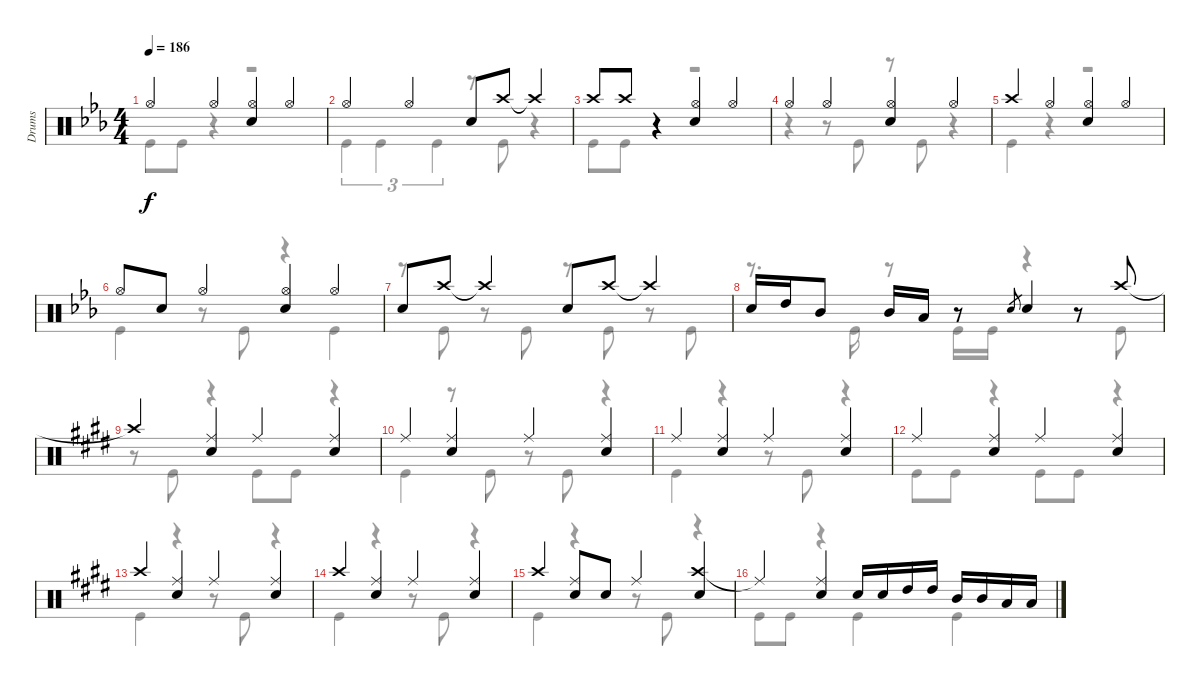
\track ("Drums" "Drums") {instrument percussion}
\staff {score}
\articulation defaults
\voice
\ts (4 4)
\tempo 186
\clef neutral
\ks eb "Hi-Hat (open)".4{dy f beam Up} "Hi-Hat (open)".4{beam Up}
("Hi-Hat (open)" "Snare (hit) 2").4{beam Up} "Hi-Hat (open)".4{beam Up} |
"Hi-Hat (open)".4{beam Up} "Hi-Hat (open)".4{beam Up} "Snare (hit) 2".8{beam Up} "Crash high (hit)".8{beam Up} "Crash high (hit)"{t}.4{beam Up} |
"Crash high (hit)".8{beam Up} "Crash high (hit)".8{beam Up} r.4 ("Hi-Hat (open)" "Snare (hit) 2").4{beam Up} "Hi-Hat (open)".4{beam Up} |
"Hi-Hat (open)".4{beam Up} "Hi-Hat (open)".4{beam Up} ("Hi-Hat (open)" "Snare (hit) 2").4{beam Up} "Hi-Hat (open)".4{beam Up} |
"Crash high (hit)".4{beam Up} "Hi-Hat (open)".4{beam Up} ("Hi-Hat (open)" "Snare (hit) 2").4{beam Up} "Hi-Hat (open)".4{beam Up} |
"Hi-Hat (open)".8{beam Up} "Snare (hit) 2".8{beam Up} "Hi-Hat (open)".4{beam Up} ("Hi-Hat (open)" "Snare (hit) 2").4{beam Up} "Hi-Hat (open)".4{beam Up} |
"Snare (hit) 2".8{beam Up} "Crash high (hit)".8{beam Up} "Crash high (hit)"{t}.4{beam Up} "Snare (hit) 2".8{beam Up} "Crash high (hit)".8{beam Up} "Crash high (hit)"{t}.4{beam Up} |
"Snare (hit) 2".16{beam Up} "High Tom (hit)".16{beam Up} "Mid Tom (hit)".8{beam Up} "Mid Tom (hit)".16{beam Up} "Low Tom (hit)".16{beam Up} r.8 "Snare (hit) 2".8{gr} "Snare (hit) 2".4{beam Up} r.8 "Crash high (hit)".8{beam Up} |
\ks e "Crash high (hit)"{t}.4{beam Up}
("Ride (middle)" "Snare (hit) 2").4{beam Up} "Ride (middle)".4{beam Up} ("Ride (middle)" "Snare (hit) 2").4{beam Up} |
"Ride (middle)".4{beam Up} ("Ride (middle)" "Snare (hit) 2").4{beam Up} "Ride (middle)".4{beam Up} ("Ride (middle)" "Snare (hit) 2").4{beam Up} |
"Ride (middle)".4{beam Up} ("Ride (middle)" "Snare (hit) 2").4{beam Up} "Ride (middle)".4{beam Up} ("Ride (middle)" "Snare (hit) 2").4{beam Up} |
"Ride (middle)".4{beam Up} ("Ride (middle)" "Snare (hit) 2").4{beam Up} "Ride (middle)".4{beam Up} ("Ride (middle)" "Snare (hit) 2").4{beam Up} |
"Crash high (hit)".4{beam Up} ("Ride (middle)" "Snare (hit) 2").4{beam Up} "Ride (middle)".4{beam Up} ("Ride (middle)" "Snare (hit) 2").4{beam Up} |
"Crash high (hit)".4{beam Up} ("Ride (middle)" "Snare (hit) 2").4{beam Up} "Ride (middle)".4{beam Up} ("Ride (middle)" "Snare (hit) 2").4{beam Up} |
"Crash high (hit)".4{beam Up} ("Ride (middle)" "Snare (hit) 2").8{beam Up} "Snare (hit) 2".8{beam Up} "Ride (middle)".4{beam Up} ("Crash high (hit)" "Snare (hit) 2").4{beam Up} |
"Ride (middle)"{t}.4{beam Up} ("Ride (middle)" "Snare (hit) 2").4{beam Up} "Snare (hit) 2".16{beam Up} "Snare (hit) 2".16{beam Up} "High Tom (hit)".16{beam Up} "High Tom (hit)".16{beam Up} "Mid Tom (hit)".16{beam Up} "Mid Tom (hit)".16{beam Up} "Low Tom (hit)".16{beam Up} "Low Tom (hit)".16{beam Up}
\voice
\clef neutral
\ottava regular
\simile none
\ks eb "Kick (hit)".8{dy f} "Kick (hit)".8
r.4 r.2 |
"Kick (hit)".4{tu (3 2)} "Kick (hit)".4{tu (3 2)} "Kick (hit)".4{tu (3 2)} r.8 "Kick (hit)".8 r.4 |
"Kick (hit)".8 "Kick (hit)".8 r.4 r.2 |
r.4 r.8 "Kick (hit)".8 r.8 "Kick (hit)".8 r.4 |
"Kick (hit)".4 r.4 r.2 |
"Kick (hit)".4 r.8 "Kick (hit)".8 r.4 "Kick (hit)".4 |
r.8 "Kick (hit)".8 r.8 "Kick (hit)".8 r.8 "Kick (hit)".8 r.8 "Kick (hit)".8 |
r.8{d} "Kick (hit)".16 r.8 "Kick (hit)".16 "Kick (hit)".16 r.4 r.8 "Kick (hit)".8 |
\ks e
r.8 "Kick (hit)".8 r.4 "Kick (hit)".8 "Kick (hit)".8 r.4 |
"Kick (hit)".4 r.8 "Kick (hit)".8 r.8 "Kick (hit)".8 r.4 |
"Kick (hit)".4 r.4 r.8 "Kick (hit)".8 r.4 |
"Kick (hit)".8 "Kick (hit)".8 r.4 "Kick (hit)".8 "Kick (hit)".8 r.4 |
"Kick (hit)".4 r.4 r.8 "Kick (hit)".8 r.4 |
"Kick (hit)".4 r.4 r.8 "Kick (hit)".8 r.4 |
"Kick (hit)".4 r.4 r.8 "Kick (hit)".8 r.4 |
"Kick (hit)".8 "Kick (hit)".8 r.4 "Kick (hit)".4 "Kick (hit)".4
